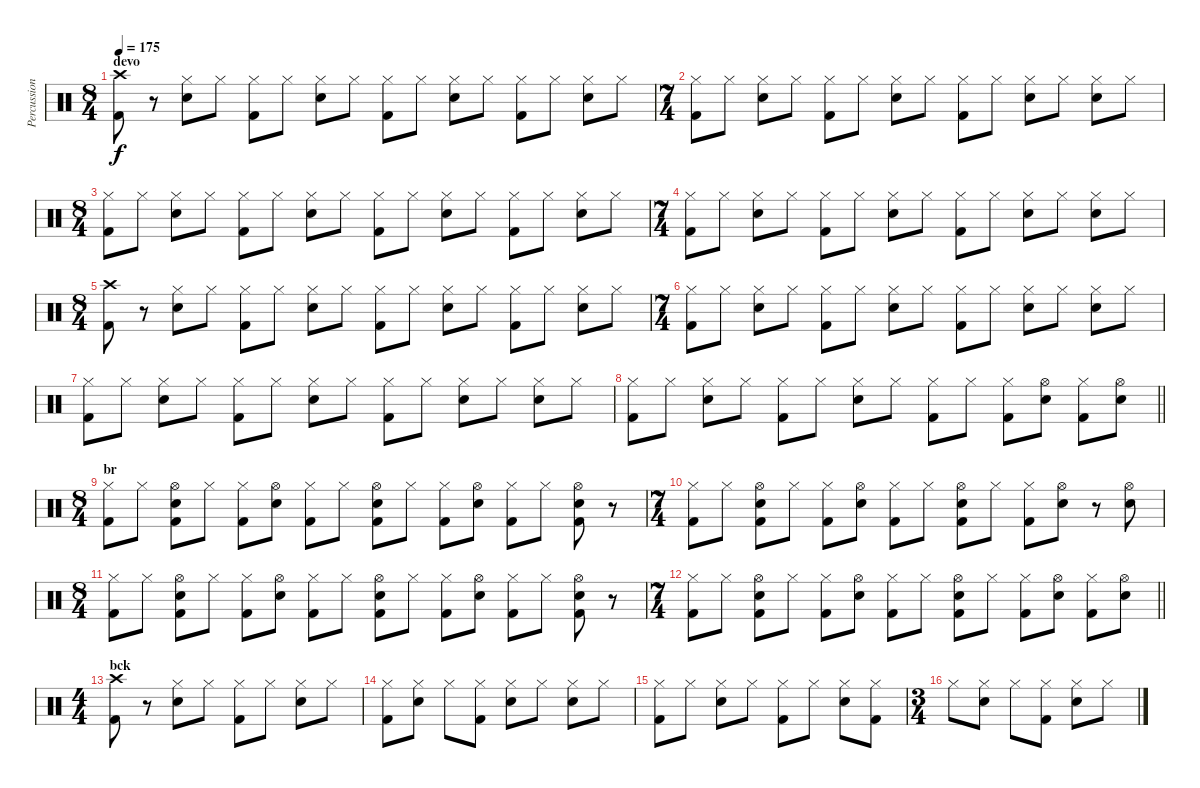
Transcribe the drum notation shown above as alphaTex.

\track ("Percussion" "Percussion") {instrument percussion}
\staff {score}
\articulation defaults
\ts (8 4)
\section ("" "devo")
\tempo 175
\clef neutral
\ks c
("Crash high (hit)" "Kick (hit) 2").8{dy f} r.8 ("Hi-Hat (closed)" "Electric Snare (hit)").8 "Hi-Hat (closed)".8 ("Hi-Hat (closed)" "Kick (hit) 2").8 "Hi-Hat (closed)".8 ("Hi-Hat (closed)" "Electric Snare (hit)").8 "Hi-Hat (closed)".8 ("Hi-Hat (closed)" "Kick (hit) 2").8 "Hi-Hat (closed)".8 ("Hi-Hat (closed)" "Electric Snare (hit)").8 "Hi-Hat (closed)".8 ("Hi-Hat (closed)" "Kick (hit) 2").8 "Hi-Hat (closed)".8 ("Hi-Hat (closed)" "Electric Snare (hit)").8 "Hi-Hat (closed)".8 |
\ts (7 4)
("Hi-Hat (closed)" "Kick (hit) 2").8 "Hi-Hat (closed)".8 ("Hi-Hat (closed)" "Electric Snare (hit)").8 "Hi-Hat (closed)".8 ("Hi-Hat (closed)" "Kick (hit) 2").8 "Hi-Hat (closed)".8 ("Hi-Hat (closed)" "Electric Snare (hit)").8 "Hi-Hat (closed)".8 ("Hi-Hat (closed)" "Kick (hit) 2").8 "Hi-Hat (closed)".8 ("Hi-Hat (closed)" "Electric Snare (hit)").8 "Hi-Hat (closed)".8 ("Hi-Hat (closed)" "Electric Snare (hit)").8 "Hi-Hat (closed)".8 |
\ts (8 4)
("Hi-Hat (closed)" "Kick (hit) 2").8 "Hi-Hat (closed)".8 ("Hi-Hat (closed)" "Electric Snare (hit)").8 "Hi-Hat (closed)".8 ("Hi-Hat (closed)" "Kick (hit) 2").8 "Hi-Hat (closed)".8 ("Hi-Hat (closed)" "Electric Snare (hit)").8 "Hi-Hat (closed)".8 ("Hi-Hat (closed)" "Kick (hit) 2").8 "Hi-Hat (closed)".8 ("Hi-Hat (closed)" "Electric Snare (hit)").8 "Hi-Hat (closed)".8 ("Hi-Hat (closed)" "Kick (hit) 2").8 "Hi-Hat (closed)".8 ("Hi-Hat (closed)" "Electric Snare (hit)").8 "Hi-Hat (closed)".8 |
\ts (7 4)
("Hi-Hat (closed)" "Kick (hit) 2").8 "Hi-Hat (closed)".8 ("Hi-Hat (closed)" "Electric Snare (hit)").8 "Hi-Hat (closed)".8 ("Hi-Hat (closed)" "Kick (hit) 2").8 "Hi-Hat (closed)".8 ("Hi-Hat (closed)" "Electric Snare (hit)").8 "Hi-Hat (closed)".8 ("Hi-Hat (closed)" "Kick (hit) 2").8 "Hi-Hat (closed)".8 ("Hi-Hat (closed)" "Electric Snare (hit)").8 "Hi-Hat (closed)".8 ("Hi-Hat (closed)" "Electric Snare (hit)").8 "Hi-Hat (closed)".8 |
\ts (8 4)
("Crash high (hit)" "Kick (hit) 2").8 r.8 ("Hi-Hat (closed)" "Electric Snare (hit)").8 "Hi-Hat (closed)".8 ("Hi-Hat (closed)" "Kick (hit) 2").8 "Hi-Hat (closed)".8 ("Hi-Hat (closed)" "Electric Snare (hit)").8 "Hi-Hat (closed)".8 ("Hi-Hat (closed)" "Kick (hit) 2").8 "Hi-Hat (closed)".8 ("Hi-Hat (closed)" "Electric Snare (hit)").8 "Hi-Hat (closed)".8 ("Hi-Hat (closed)" "Kick (hit) 2").8 "Hi-Hat (closed)".8 ("Hi-Hat (closed)" "Electric Snare (hit)").8 "Hi-Hat (closed)".8 |
\ts (7 4)
("Hi-Hat (closed)" "Kick (hit) 2").8 "Hi-Hat (closed)".8 ("Hi-Hat (closed)" "Electric Snare (hit)").8 "Hi-Hat (closed)".8 ("Hi-Hat (closed)" "Kick (hit) 2").8 "Hi-Hat (closed)".8 ("Hi-Hat (closed)" "Electric Snare (hit)").8 "Hi-Hat (closed)".8 ("Hi-Hat (closed)" "Kick (hit) 2").8 "Hi-Hat (closed)".8 ("Hi-Hat (closed)" "Electric Snare (hit)").8 "Hi-Hat (closed)".8 ("Hi-Hat (closed)" "Electric Snare (hit)").8 "Hi-Hat (closed)".8 |
("Hi-Hat (closed)" "Kick (hit) 2").8 "Hi-Hat (closed)".8 ("Hi-Hat (closed)" "Electric Snare (hit)").8 "Hi-Hat (closed)".8 ("Hi-Hat (closed)" "Kick (hit) 2").8 "Hi-Hat (closed)".8 ("Hi-Hat (closed)" "Electric Snare (hit)").8 "Hi-Hat (closed)".8 ("Hi-Hat (closed)" "Kick (hit) 2").8 "Hi-Hat (closed)".8 ("Hi-Hat (closed)" "Electric Snare (hit)").8 "Hi-Hat (closed)".8 ("Hi-Hat (closed)" "Electric Snare (hit)").8 "Hi-Hat (closed)".8 |
\barLineRight lightlight
("Hi-Hat (closed)" "Kick (hit) 2").8 "Hi-Hat (closed)".8 ("Hi-Hat (closed)" "Electric Snare (hit)").8 "Hi-Hat (closed)".8 ("Hi-Hat (closed)" "Kick (hit) 2").8 "Hi-Hat (closed)".8 ("Hi-Hat (closed)" "Electric Snare (hit)").8 "Hi-Hat (closed)".8 ("Hi-Hat (closed)" "Kick (hit) 2").8 "Hi-Hat (closed)".8 ("Hi-Hat (closed)" "Kick (hit) 2").8 ("Hi-Hat (open)" "Electric Snare (hit)").8 ("Hi-Hat (closed)" "Kick (hit) 2").8 ("Hi-Hat (open)" "Electric Snare (hit)").8 |
\ts (8 4)
\section ("" "br")
("Hi-Hat (closed)" "Kick (hit) 2").8 "Hi-Hat (closed)".8 ("Hi-Hat (open)" "Electric Snare (hit)" "Kick (hit) 2").8 "Hi-Hat (closed)".8 ("Hi-Hat (closed)" "Kick (hit) 2").8 ("Hi-Hat (open)" "Electric Snare (hit)").8 ("Hi-Hat (closed)" "Kick (hit) 2").8 "Hi-Hat (closed)".8 ("Hi-Hat (open)" "Electric Snare (hit)" "Kick (hit) 2").8 "Hi-Hat (closed)".8 ("Hi-Hat (closed)" "Kick (hit) 2").8 ("Hi-Hat (open)" "Electric Snare (hit)").8 ("Hi-Hat (closed)" "Kick (hit) 2").8 "Hi-Hat (closed)".8 ("Hi-Hat (open)" "Electric Snare (hit)" "Kick (hit) 2").8 r.8 |
\ts (7 4)
("Hi-Hat (closed)" "Kick (hit) 2").8 "Hi-Hat (closed)".8 ("Hi-Hat (open)" "Electric Snare (hit)" "Kick (hit) 2").8 "Hi-Hat (closed)".8 ("Hi-Hat (closed)" "Kick (hit) 2").8 ("Hi-Hat (open)" "Electric Snare (hit)").8 ("Hi-Hat (closed)" "Kick (hit) 2").8 "Hi-Hat (closed)".8 ("Hi-Hat (open)" "Electric Snare (hit)" "Kick (hit) 2").8 "Hi-Hat (closed)".8 ("Hi-Hat (closed)" "Kick (hit) 2").8 ("Hi-Hat (open)" "Electric Snare (hit)").8 r.8 ("Hi-Hat (open)" "Electric Snare (hit)").8 |
\ts (8 4)
("Hi-Hat (closed)" "Kick (hit) 2").8 "Hi-Hat (closed)".8 ("Hi-Hat (open)" "Electric Snare (hit)" "Kick (hit) 2").8 "Hi-Hat (closed)".8 ("Hi-Hat (closed)" "Kick (hit) 2").8 ("Hi-Hat (open)" "Electric Snare (hit)").8 ("Hi-Hat (closed)" "Kick (hit) 2").8 "Hi-Hat (closed)".8 ("Hi-Hat (open)" "Electric Snare (hit)" "Kick (hit) 2").8 "Hi-Hat (closed)".8 ("Hi-Hat (closed)" "Kick (hit) 2").8 ("Hi-Hat (open)" "Electric Snare (hit)").8 ("Hi-Hat (closed)" "Kick (hit) 2").8 "Hi-Hat (closed)".8 ("Hi-Hat (open)" "Electric Snare (hit)" "Kick (hit) 2").8 r.8 |
\ts (7 4)
\barLineRight lightlight
("Hi-Hat (closed)" "Kick (hit) 2").8 "Hi-Hat (closed)".8 ("Hi-Hat (open)" "Electric Snare (hit)" "Kick (hit) 2").8 "Hi-Hat (closed)".8 ("Hi-Hat (closed)" "Kick (hit) 2").8 ("Hi-Hat (open)" "Electric Snare (hit)").8 ("Hi-Hat (closed)" "Kick (hit) 2").8 "Hi-Hat (closed)".8 ("Hi-Hat (open)" "Electric Snare (hit)" "Kick (hit) 2").8 "Hi-Hat (closed)".8 ("Hi-Hat (closed)" "Kick (hit) 2").8 ("Hi-Hat (open)" "Electric Snare (hit)").8 ("Hi-Hat (closed)" "Kick (hit) 2").8 ("Hi-Hat (open)" "Electric Snare (hit)").8 |
\ts (4 4)
\section ("" "bck")
("Crash high (hit)" "Kick (hit) 2").8 r.8 ("Hi-Hat (closed)" "Electric Snare (hit)").8 "Hi-Hat (closed)".8 ("Hi-Hat (closed)" "Kick (hit) 2").8 "Hi-Hat (closed)".8 ("Hi-Hat (closed)" "Electric Snare (hit)").8 "Hi-Hat (closed)".8 |
("Hi-Hat (closed)" "Kick (hit) 2").8 ("Hi-Hat (closed)" "Electric Snare (hit)").8 "Hi-Hat (closed)".8 ("Hi-Hat (closed)" "Kick (hit) 2").8 ("Hi-Hat (closed)" "Electric Snare (hit)").8 "Hi-Hat (closed)".8 ("Hi-Hat (closed)" "Electric Snare (hit)").8 "Hi-Hat (closed)".8 |
("Hi-Hat (closed)" "Kick (hit) 2").8 "Hi-Hat (closed)".8 ("Hi-Hat (closed)" "Electric Snare (hit)").8 "Hi-Hat (closed)".8 ("Hi-Hat (closed)" "Kick (hit) 2").8 "Hi-Hat (closed)".8 ("Hi-Hat (closed)" "Electric Snare (hit)").8 ("Hi-Hat (closed)" "Kick (hit) 2").8 |
\ts (3 4)
"Hi-Hat (closed)".8 ("Hi-Hat (closed)" "Electric Snare (hit)").8 "Hi-Hat (closed)".8 ("Hi-Hat (closed)" "Kick (hit) 2").8 ("Hi-Hat (closed)" "Electric Snare (hit)").8 "Hi-Hat (closed)".8
